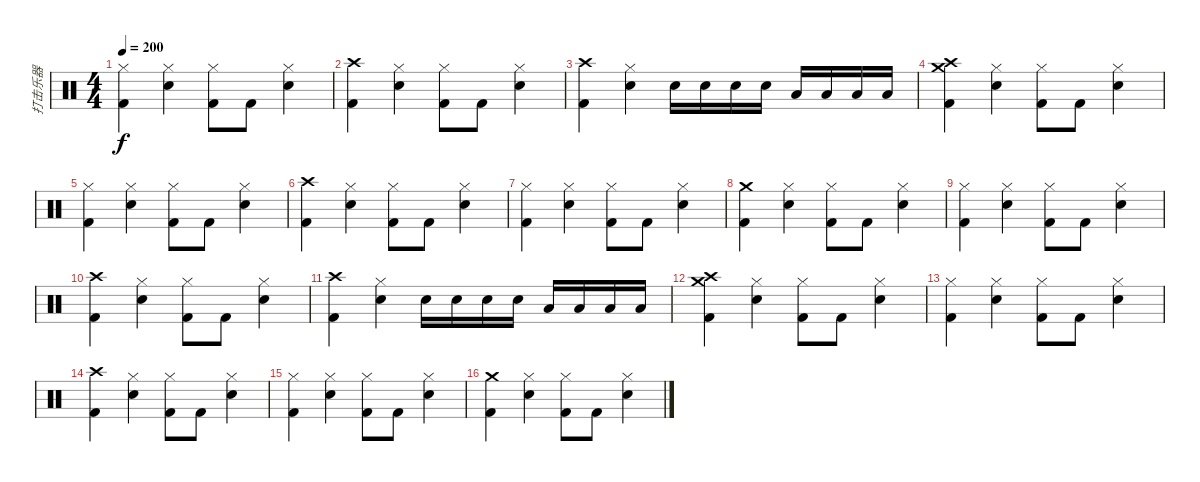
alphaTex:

\track ("打击乐器" "打击乐器") {instrument percussion}
\staff {score}
\articulation defaults
\ts (4 4)
\tempo 200
\clef neutral
\ks c
("Hi-Hat (closed)" "Kick (hit) 2").4{dy f} ("Hi-Hat (closed)" "Snare (hit) 2").4 ("Hi-Hat (closed)" "Kick (hit) 2").8 "Kick (hit) 2".8 ("Hi-Hat (closed)" "Snare (hit) 2").4 |
("Crash high (hit)" "Kick (hit) 2").4 ("Hi-Hat (closed)" "Snare (hit) 2").4 ("Hi-Hat (closed)" "Kick (hit) 2").8 "Kick (hit) 2".8 ("Hi-Hat (closed)" "Snare (hit) 2").4 |
("Crash high (hit)" "Kick (hit) 2").4 ("Hi-Hat (closed)" "Snare (hit) 2").4 "Snare (hit) 2".16 "Snare (hit) 2".16 "Snare (hit) 2".16 "Snare (hit) 2".16 "Low Floor Tom (hit)".16 "Low Floor Tom (hit)".16 "Low Tom (hit)".16 "Low Tom (hit)".16 |
("Crash medium (hit)" "Crash high (hit)" "Kick (hit) 2").4 ("Hi-Hat (closed)" "Snare (hit) 2").4 ("Hi-Hat (closed)" "Kick (hit) 2").8 "Kick (hit) 2".8 ("Hi-Hat (closed)" "Snare (hit) 2").4 |
("Hi-Hat (closed)" "Kick (hit) 2").4 ("Hi-Hat (closed)" "Snare (hit) 2").4 ("Hi-Hat (closed)" "Kick (hit) 2").8 "Kick (hit) 2".8 ("Hi-Hat (closed)" "Snare (hit) 2").4 |
("Crash high (hit)" "Kick (hit) 2").4 ("Hi-Hat (closed)" "Snare (hit) 2").4 ("Hi-Hat (closed)" "Kick (hit) 2").8 "Kick (hit) 2".8 ("Hi-Hat (closed)" "Snare (hit) 2").4 |
("Hi-Hat (closed)" "Kick (hit) 2").4 ("Hi-Hat (closed)" "Snare (hit) 2").4 ("Hi-Hat (closed)" "Kick (hit) 2").8 "Kick (hit) 2".8 ("Hi-Hat (closed)" "Snare (hit) 2").4 |
("Crash medium (hit)" "Kick (hit) 2").4 ("Hi-Hat (closed)" "Snare (hit) 2").4 ("Hi-Hat (closed)" "Kick (hit) 2").8 "Kick (hit) 2".8 ("Hi-Hat (closed)" "Snare (hit) 2").4 |
("Hi-Hat (closed)" "Kick (hit) 2").4 ("Hi-Hat (closed)" "Snare (hit) 2").4 ("Hi-Hat (closed)" "Kick (hit) 2").8 "Kick (hit) 2".8 ("Hi-Hat (closed)" "Snare (hit) 2").4 |
("Crash high (hit)" "Kick (hit) 2").4 ("Hi-Hat (closed)" "Snare (hit) 2").4 ("Hi-Hat (closed)" "Kick (hit) 2").8 "Kick (hit) 2".8 ("Hi-Hat (closed)" "Snare (hit) 2").4 |
("Crash high (hit)" "Kick (hit) 2").4 ("Hi-Hat (closed)" "Snare (hit) 2").4 "Snare (hit) 2".16 "Snare (hit) 2".16 "Snare (hit) 2".16 "Snare (hit) 2".16 "Low Floor Tom (hit)".16 "Low Floor Tom (hit)".16 "Low Tom (hit)".16 "Low Tom (hit)".16 |
("Crash medium (hit)" "Crash high (hit)" "Kick (hit) 2").4 ("Hi-Hat (closed)" "Snare (hit) 2").4 ("Hi-Hat (closed)" "Kick (hit) 2").8 "Kick (hit) 2".8 ("Hi-Hat (closed)" "Snare (hit) 2").4 |
("Hi-Hat (closed)" "Kick (hit) 2").4 ("Hi-Hat (closed)" "Snare (hit) 2").4 ("Hi-Hat (closed)" "Kick (hit) 2").8 "Kick (hit) 2".8 ("Hi-Hat (closed)" "Snare (hit) 2").4 |
("Crash high (hit)" "Kick (hit) 2").4 ("Hi-Hat (closed)" "Snare (hit) 2").4 ("Hi-Hat (closed)" "Kick (hit) 2").8 "Kick (hit) 2".8 ("Hi-Hat (closed)" "Snare (hit) 2").4 |
("Hi-Hat (closed)" "Kick (hit) 2").4 ("Hi-Hat (closed)" "Snare (hit) 2").4 ("Hi-Hat (closed)" "Kick (hit) 2").8 "Kick (hit) 2".8 ("Hi-Hat (closed)" "Snare (hit) 2").4 |
("Crash medium (hit)" "Kick (hit) 2").4 ("Hi-Hat (closed)" "Snare (hit) 2").4 ("Hi-Hat (closed)" "Kick (hit) 2").8 "Kick (hit) 2".8 ("Hi-Hat (closed)" "Snare (hit) 2").4
